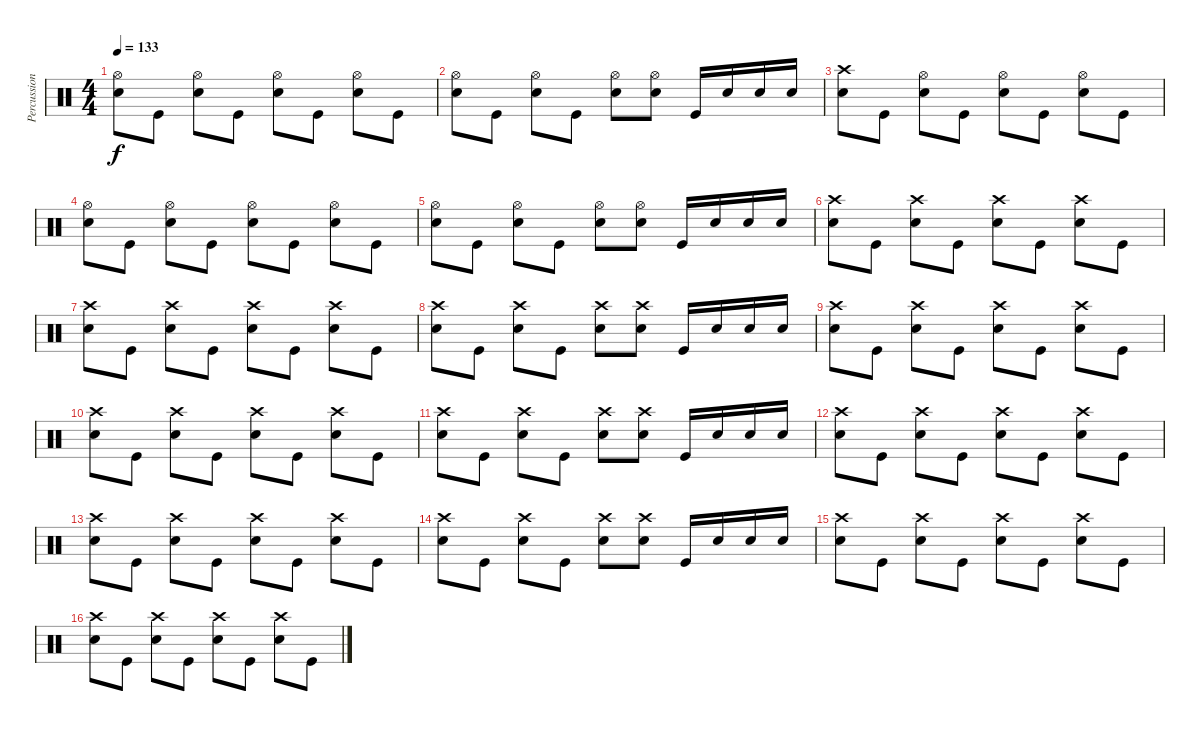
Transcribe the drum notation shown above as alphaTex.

\track ("Percussion" "Percussion") {instrument percussion}
\staff {score}
\articulation defaults
\ts (4 4)
\tempo 133
\clef neutral
\ks c
("Hi-Hat (open)" "Electric Snare (hit)").8{dy f} "Kick (hit)".8 ("Hi-Hat (open)" "Electric Snare (hit)").8 "Kick (hit)".8 ("Hi-Hat (open)" "Electric Snare (hit)").8 "Kick (hit)".8 ("Hi-Hat (open)" "Electric Snare (hit)").8 "Kick (hit)".8 |
("Hi-Hat (open)" "Electric Snare (hit)").8 "Kick (hit)".8 ("Hi-Hat (open)" "Electric Snare (hit)").8 "Kick (hit)".8 ("Hi-Hat (open)" "Electric Snare (hit)").8 ("Hi-Hat (open)" "Electric Snare (hit)").8 "Kick (hit)".16 "Electric Snare (hit)".16 "Electric Snare (hit)".16 "Electric Snare (hit)".16 |
("Crash high (hit)" "Electric Snare (hit)").8 "Kick (hit)".8 ("Hi-Hat (open)" "Electric Snare (hit)").8 "Kick (hit)".8 ("Hi-Hat (open)" "Electric Snare (hit)").8 "Kick (hit)".8 ("Hi-Hat (open)" "Electric Snare (hit)").8 "Kick (hit)".8 |
("Hi-Hat (open)" "Electric Snare (hit)").8 "Kick (hit)".8 ("Hi-Hat (open)" "Electric Snare (hit)").8 "Kick (hit)".8 ("Hi-Hat (open)" "Electric Snare (hit)").8 "Kick (hit)".8 ("Hi-Hat (open)" "Electric Snare (hit)").8 "Kick (hit)".8 |
("Hi-Hat (open)" "Electric Snare (hit)").8 "Kick (hit)".8 ("Hi-Hat (open)" "Electric Snare (hit)").8 "Kick (hit)".8 ("Hi-Hat (open)" "Electric Snare (hit)").8 ("Hi-Hat (open)" "Electric Snare (hit)").8 "Kick (hit)".16 "Electric Snare (hit)".16 "Electric Snare (hit)".16 "Electric Snare (hit)".16 |
("Crash high (hit)" "Electric Snare (hit)").8 "Kick (hit)".8 ("Crash high (hit)" "Electric Snare (hit)").8 "Kick (hit)".8 ("Crash high (hit)" "Electric Snare (hit)").8 "Kick (hit)".8 ("Crash high (hit)" "Electric Snare (hit)").8 "Kick (hit)".8 |
("Crash high (hit)" "Electric Snare (hit)").8 "Kick (hit)".8 ("Crash high (hit)" "Electric Snare (hit)").8 "Kick (hit)".8 ("Crash high (hit)" "Electric Snare (hit)").8 "Kick (hit)".8 ("Crash high (hit)" "Electric Snare (hit)").8 "Kick (hit)".8 |
("Crash high (hit)" "Electric Snare (hit)").8 "Kick (hit)".8 ("Crash high (hit)" "Electric Snare (hit)").8 "Kick (hit)".8 ("Crash high (hit)" "Electric Snare (hit)").8 ("Crash high (hit)" "Electric Snare (hit)").8 "Kick (hit)".16 "Electric Snare (hit)".16 "Electric Snare (hit)".16 "Electric Snare (hit)".16 |
("Crash high (hit)" "Electric Snare (hit)").8 "Kick (hit)".8 ("Crash high (hit)" "Electric Snare (hit)").8 "Kick (hit)".8 ("Crash high (hit)" "Electric Snare (hit)").8 "Kick (hit)".8 ("Crash high (hit)" "Electric Snare (hit)").8 "Kick (hit)".8 |
("Crash high (hit)" "Electric Snare (hit)").8 "Kick (hit)".8 ("Crash high (hit)" "Electric Snare (hit)").8 "Kick (hit)".8 ("Crash high (hit)" "Electric Snare (hit)").8 "Kick (hit)".8 ("Crash high (hit)" "Electric Snare (hit)").8 "Kick (hit)".8 |
("Crash high (hit)" "Electric Snare (hit)").8 "Kick (hit)".8 ("Crash high (hit)" "Electric Snare (hit)").8 "Kick (hit)".8 ("Crash high (hit)" "Electric Snare (hit)").8 ("Crash high (hit)" "Electric Snare (hit)").8 "Kick (hit)".16 "Electric Snare (hit)".16 "Electric Snare (hit)".16 "Electric Snare (hit)".16 |
("Crash high (hit)" "Electric Snare (hit)").8 "Kick (hit)".8 ("Crash high (hit)" "Electric Snare (hit)").8 "Kick (hit)".8 ("Crash high (hit)" "Electric Snare (hit)").8 "Kick (hit)".8 ("Crash high (hit)" "Electric Snare (hit)").8 "Kick (hit)".8 |
("Crash high (hit)" "Electric Snare (hit)").8 "Kick (hit)".8 ("Crash high (hit)" "Electric Snare (hit)").8 "Kick (hit)".8 ("Crash high (hit)" "Electric Snare (hit)").8 "Kick (hit)".8 ("Crash high (hit)" "Electric Snare (hit)").8 "Kick (hit)".8 |
("Crash high (hit)" "Electric Snare (hit)").8 "Kick (hit)".8 ("Crash high (hit)" "Electric Snare (hit)").8 "Kick (hit)".8 ("Crash high (hit)" "Electric Snare (hit)").8 ("Crash high (hit)" "Electric Snare (hit)").8 "Kick (hit)".16 "Electric Snare (hit)".16 "Electric Snare (hit)".16 "Electric Snare (hit)".16 |
("Crash high (hit)" "Electric Snare (hit)").8 "Kick (hit)".8 ("Crash high (hit)" "Electric Snare (hit)").8 "Kick (hit)".8 ("Crash high (hit)" "Electric Snare (hit)").8 "Kick (hit)".8 ("Crash high (hit)" "Electric Snare (hit)").8 "Kick (hit)".8 |
("Crash high (hit)" "Electric Snare (hit)").8 "Kick (hit)".8 ("Crash high (hit)" "Electric Snare (hit)").8 "Kick (hit)".8 ("Crash high (hit)" "Electric Snare (hit)").8 "Kick (hit)".8 ("Crash high (hit)" "Electric Snare (hit)").8 "Kick (hit)".8
